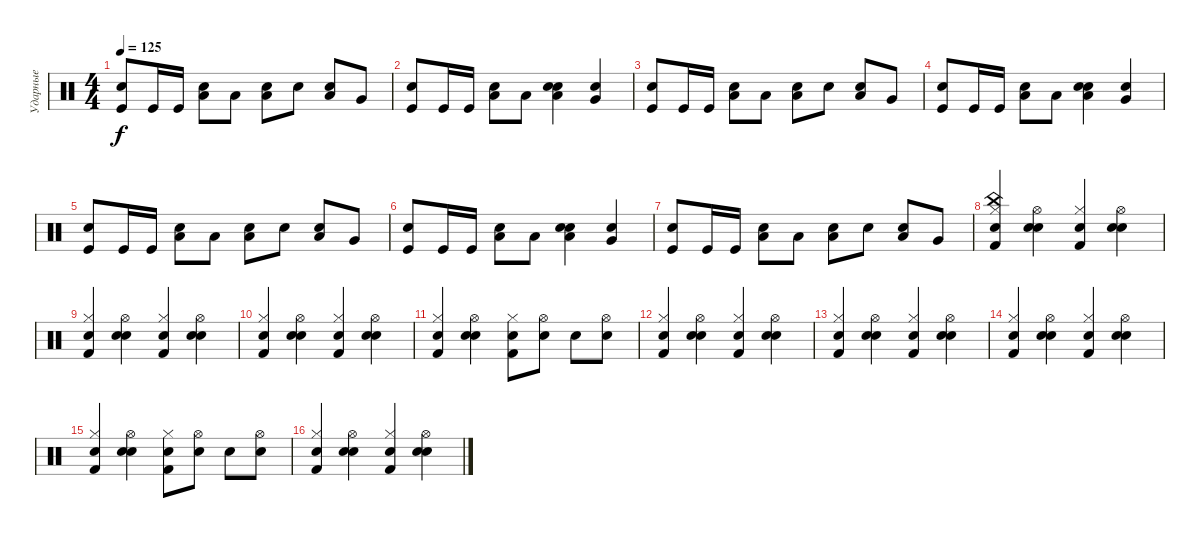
\track ("Ударные" "Ударные") {instrument percussion}
\staff {score}
\articulation defaults
\ts (4 4)
\tempo 125
\clef neutral
\ks c
("Hand Clap (hit)" "Kick (hit)").8{dy f} "Kick (hit)".16 "Kick (hit)".16 ("Hand Clap (hit)" "Low Floor Tom (hit)").8 "Low Floor Tom (hit)".8 ("Hand Clap (hit)" "Low Tom (hit)").8 "Electric Snare (hit)".8 ("Hand Clap (hit)" "Low Tom (hit)").8 "Very Low Tom (hit)".8 |
("Hand Clap (hit)" "Kick (hit)").8 "Kick (hit)".16 "Kick (hit)".16 ("Low Floor Tom (hit)" "Hand Clap (hit)").8 "Low Floor Tom (hit)".8 ("Electric Snare (hit)" "Hand Clap (hit)" "Low Tom (hit)").4 ("Hand Clap (hit)" "Very Low Tom (hit)").4 |
("Hand Clap (hit)" "Kick (hit)").8 "Kick (hit)".16 "Kick (hit)".16 ("Hand Clap (hit)" "Low Floor Tom (hit)").8 "Low Floor Tom (hit)".8 ("Hand Clap (hit)" "Low Tom (hit)").8 "Electric Snare (hit)".8 ("Hand Clap (hit)" "Low Tom (hit)").8 "Very Low Tom (hit)".8 |
("Hand Clap (hit)" "Kick (hit)").8 "Kick (hit)".16 "Kick (hit)".16 ("Low Floor Tom (hit)" "Hand Clap (hit)").8 "Low Floor Tom (hit)".8 ("Electric Snare (hit)" "Hand Clap (hit)" "Low Tom (hit)").4 ("Hand Clap (hit)" "Very Low Tom (hit)").4 |
("Hand Clap (hit)" "Kick (hit)").8 "Kick (hit)".16 "Kick (hit)".16 ("Hand Clap (hit)" "Low Floor Tom (hit)").8 "Low Floor Tom (hit)".8 ("Hand Clap (hit)" "Low Tom (hit)").8 "Electric Snare (hit)".8 ("Hand Clap (hit)" "Low Tom (hit)").8 "Very Low Tom (hit)".8 |
("Hand Clap (hit)" "Kick (hit)").8 "Kick (hit)".16 "Kick (hit)".16 ("Low Floor Tom (hit)" "Hand Clap (hit)").8 "Low Floor Tom (hit)".8 ("Electric Snare (hit)" "Hand Clap (hit)" "Low Tom (hit)").4 ("Hand Clap (hit)" "Very Low Tom (hit)").4 |
("Hand Clap (hit)" "Kick (hit)").8 "Kick (hit)".16 "Kick (hit)".16 ("Hand Clap (hit)" "Low Floor Tom (hit)").8 "Low Floor Tom (hit)".8 ("Hand Clap (hit)" "Low Tom (hit)").8 "Electric Snare (hit)".8 ("Hand Clap (hit)" "Low Tom (hit)").8 "Very Low Tom (hit)".8 |
("China (hit)" "Hi-Hat (closed)" "Kick (hit) 2" "Hand Clap (hit)").4 ("Hi-Hat (open)" "Electric Snare (hit)" "Hand Clap (hit)").4 ("Hi-Hat (closed)" "Kick (hit) 2" "Hand Clap (hit)").4 ("Hi-Hat (open)" "Electric Snare (hit)" "Hand Clap (hit)").4 |
("Hi-Hat (closed)" "Kick (hit) 2" "Hand Clap (hit)").4 ("Hi-Hat (open)" "Electric Snare (hit)" "Hand Clap (hit)").4 ("Hi-Hat (closed)" "Kick (hit) 2" "Hand Clap (hit)").4 ("Hi-Hat (open)" "Electric Snare (hit)" "Hand Clap (hit)").4 |
("Hi-Hat (closed)" "Kick (hit) 2" "Hand Clap (hit)").4 ("Hi-Hat (open)" "Electric Snare (hit)" "Hand Clap (hit)").4 ("Hi-Hat (closed)" "Kick (hit) 2" "Hand Clap (hit)").4 ("Hi-Hat (open)" "Electric Snare (hit)" "Hand Clap (hit)").4 |
("Hi-Hat (closed)" "Kick (hit) 2" "Hand Clap (hit)").4 ("Hi-Hat (open)" "Electric Snare (hit)" "Hand Clap (hit)").4 ("Hi-Hat (closed)" "Kick (hit) 2" "Hand Clap (hit)").8 ("Hi-Hat (open)" "Electric Snare (hit)").8 "Hand Clap (hit)".8 ("Hi-Hat (open)" "Electric Snare (hit)").8 |
("Hi-Hat (closed)" "Kick (hit) 2" "Hand Clap (hit)").4 ("Hi-Hat (open)" "Electric Snare (hit)" "Hand Clap (hit)").4 ("Hi-Hat (closed)" "Kick (hit) 2" "Hand Clap (hit)").4 ("Hi-Hat (open)" "Electric Snare (hit)" "Hand Clap (hit)").4 |
("Hi-Hat (closed)" "Kick (hit) 2" "Hand Clap (hit)").4 ("Hi-Hat (open)" "Electric Snare (hit)" "Hand Clap (hit)").4 ("Hi-Hat (closed)" "Kick (hit) 2" "Hand Clap (hit)").4 ("Hi-Hat (open)" "Electric Snare (hit)" "Hand Clap (hit)").4 |
("Hi-Hat (closed)" "Kick (hit) 2" "Hand Clap (hit)").4 ("Hi-Hat (open)" "Electric Snare (hit)" "Hand Clap (hit)").4 ("Hi-Hat (closed)" "Kick (hit) 2" "Hand Clap (hit)").4 ("Hi-Hat (open)" "Electric Snare (hit)" "Hand Clap (hit)").4 |
("Hi-Hat (closed)" "Kick (hit) 2" "Hand Clap (hit)").4 ("Hi-Hat (open)" "Electric Snare (hit)" "Hand Clap (hit)").4 ("Hi-Hat (closed)" "Kick (hit) 2" "Hand Clap (hit)").8 ("Hi-Hat (open)" "Electric Snare (hit)").8 "Hand Clap (hit)".8 ("Hi-Hat (open)" "Electric Snare (hit)").8 |
("Hi-Hat (closed)" "Kick (hit) 2" "Hand Clap (hit)").4 ("Hi-Hat (open)" "Electric Snare (hit)" "Hand Clap (hit)").4 ("Hi-Hat (closed)" "Kick (hit) 2" "Hand Clap (hit)").4 ("Hi-Hat (open)" "Electric Snare (hit)" "Hand Clap (hit)").4
